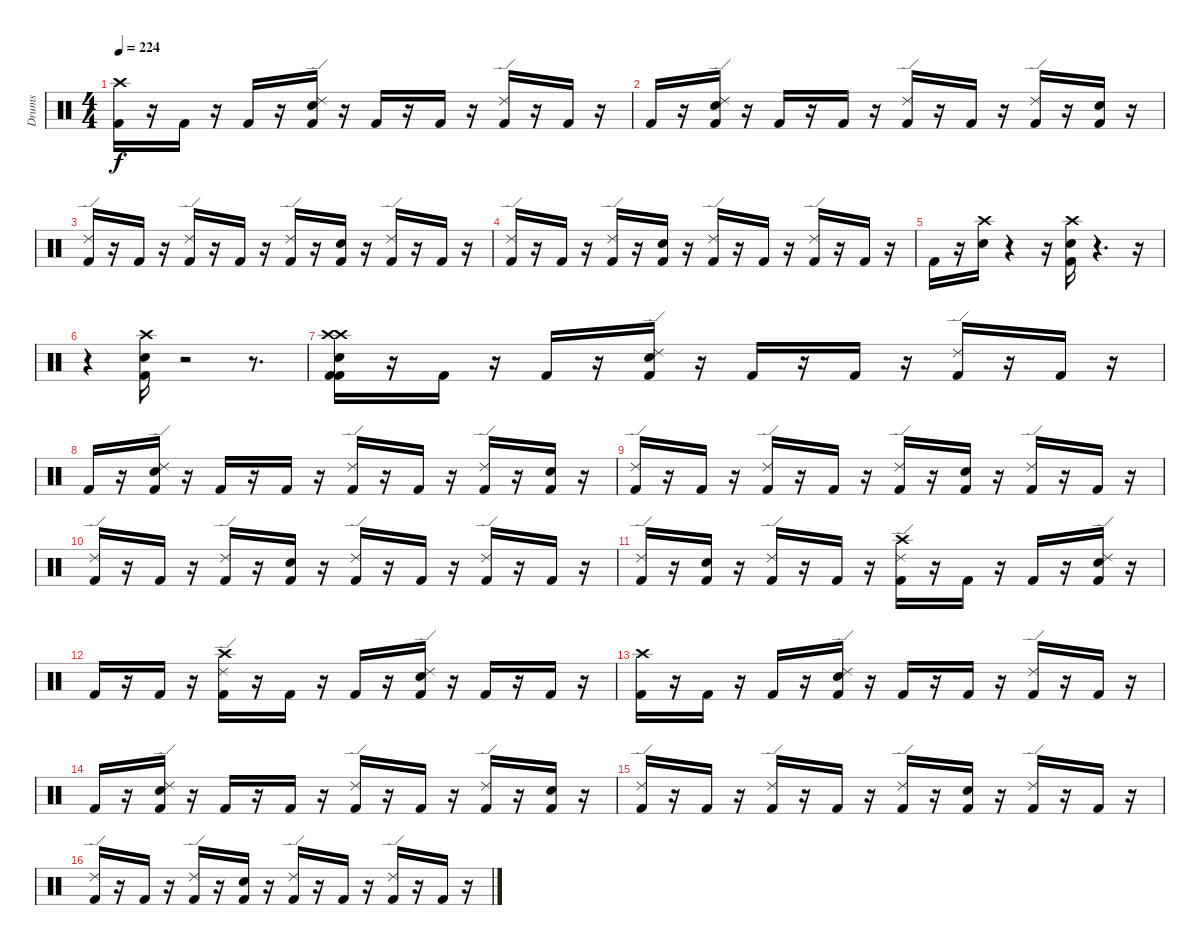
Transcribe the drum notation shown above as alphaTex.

\track ("Drums" "Drums") {instrument percussion}
\staff {score}
\articulation defaults
\ts (4 4)
\tempo 224
\clef neutral
\ks c
("Crash high (hit)" "Kick (hit) 2").16{dy f} r.16 "Kick (hit) 2".16 r.16 "Kick (hit) 2".16 r.16 ("Snare (hit) 2" "Ride (edge) 2" "Kick (hit) 2").16 r.16 "Kick (hit) 2".16 r.16 "Kick (hit) 2".16 r.16 ("Ride (edge) 2" "Kick (hit) 2").16 r.16 "Kick (hit) 2".16 r.16 |
"Kick (hit) 2".16 r.16 ("Ride (edge) 2" "Kick (hit) 2" "Snare (hit) 2").16 r.16 "Kick (hit) 2".16 r.16 "Kick (hit) 2".16 r.16 ("Ride (edge) 2" "Kick (hit) 2").16 r.16 "Kick (hit) 2".16 r.16 ("Ride (edge) 2" "Kick (hit) 2").16 r.16 ("Snare (hit) 2" "Kick (hit) 2").16 r.16 |
("Ride (edge) 2" "Kick (hit) 2").16 r.16 "Kick (hit) 2".16 r.16 ("Ride (edge) 2" "Kick (hit) 2").16 r.16 "Kick (hit) 2".16 r.16 ("Ride (edge) 2" "Kick (hit) 2").16 r.16 ("Kick (hit) 2" "Snare (hit) 2").16 r.16 ("Ride (edge) 2" "Kick (hit) 2").16 r.16 "Kick (hit) 2".16 r.16 |
("Ride (edge) 2" "Kick (hit) 2").16 r.16 "Kick (hit) 2".16 r.16 ("Ride (edge) 2" "Kick (hit) 2").16 r.16 ("Snare (hit) 2" "Kick (hit) 2").16 r.16 ("Ride (edge) 2" "Kick (hit) 2").16 r.16 "Kick (hit) 2".16 r.16 ("Ride (edge) 2" "Kick (hit) 2").16 r.16 "Kick (hit) 2".16 r.16 |
"Kick (hit) 2".16 r.16 ("Snare (hit) 2" "Crash high (hit)").16 r.4 r.16 ("Kick (hit) 2" "Snare (hit) 2" "Crash high (hit)").16 r.4{d} r.16 |
r.4 ("Kick (hit) 2" "Snare (hit) 2" "Crash high (hit)").16 r.2 r.8{d} |
("Crash high (hit)" "Snare (hit) 2" "Kick (hit) 2" "Crash high (hit)" "Kick (hit) 2").16 r.16 "Kick (hit) 2".16 r.16 "Kick (hit) 2".16 r.16 ("Snare (hit) 2" "Ride (edge) 2" "Kick (hit) 2").16 r.16 "Kick (hit) 2".16 r.16 "Kick (hit) 2".16 r.16 ("Ride (edge) 2" "Kick (hit) 2").16 r.16 "Kick (hit) 2".16 r.16 |
"Kick (hit) 2".16 r.16 ("Ride (edge) 2" "Kick (hit) 2" "Snare (hit) 2").16 r.16 "Kick (hit) 2".16 r.16 "Kick (hit) 2".16 r.16 ("Ride (edge) 2" "Kick (hit) 2").16 r.16 "Kick (hit) 2".16 r.16 ("Ride (edge) 2" "Kick (hit) 2").16 r.16 ("Snare (hit) 2" "Kick (hit) 2").16 r.16 |
("Ride (edge) 2" "Kick (hit) 2").16 r.16 "Kick (hit) 2".16 r.16 ("Ride (edge) 2" "Kick (hit) 2").16 r.16 "Kick (hit) 2".16 r.16 ("Ride (edge) 2" "Kick (hit) 2").16 r.16 ("Kick (hit) 2" "Snare (hit) 2").16 r.16 ("Ride (edge) 2" "Kick (hit) 2").16 r.16 "Kick (hit) 2".16 r.16 |
("Ride (edge) 2" "Kick (hit) 2").16 r.16 "Kick (hit) 2".16 r.16 ("Ride (edge) 2" "Kick (hit) 2").16 r.16 ("Snare (hit) 2" "Kick (hit) 2").16 r.16 ("Ride (edge) 2" "Kick (hit) 2").16 r.16 "Kick (hit) 2".16 r.16 ("Ride (edge) 2" "Kick (hit) 2").16 r.16 "Kick (hit) 2".16 r.16 |
("Ride (edge) 2" "Kick (hit) 2").16 r.16 ("Kick (hit) 2" "Snare (hit) 2").16 r.16 ("Ride (edge) 2" "Kick (hit) 2").16 r.16 "Kick (hit) 2".16 r.16 ("Ride (edge) 2" "Crash high (hit)" "Kick (hit) 2").16 r.16 "Kick (hit) 2".16 r.16 "Kick (hit) 2".16 r.16 ("Ride (edge) 2" "Snare (hit) 2" "Kick (hit) 2").16 r.16 |
"Kick (hit) 2".16 r.16 "Kick (hit) 2".16 r.16 ("Ride (edge) 2" "Crash high (hit)" "Kick (hit) 2").16 r.16 "Kick (hit) 2".16 r.16 "Kick (hit) 2".16 r.16 ("Ride (edge) 2" "Snare (hit) 2" "Kick (hit) 2").16 r.16 "Kick (hit) 2".16 r.16 "Kick (hit) 2".16 r.16 |
("Crash high (hit)" "Kick (hit) 2").16 r.16 "Kick (hit) 2".16 r.16 "Kick (hit) 2".16 r.16 ("Snare (hit) 2" "Ride (edge) 2" "Kick (hit) 2").16 r.16 "Kick (hit) 2".16 r.16 "Kick (hit) 2".16 r.16 ("Ride (edge) 2" "Kick (hit) 2").16 r.16 "Kick (hit) 2".16 r.16 |
"Kick (hit) 2".16 r.16 ("Ride (edge) 2" "Kick (hit) 2" "Snare (hit) 2").16 r.16 "Kick (hit) 2".16 r.16 "Kick (hit) 2".16 r.16 ("Ride (edge) 2" "Kick (hit) 2").16 r.16 "Kick (hit) 2".16 r.16 ("Ride (edge) 2" "Kick (hit) 2").16 r.16 ("Snare (hit) 2" "Kick (hit) 2").16 r.16 |
("Ride (edge) 2" "Kick (hit) 2").16 r.16 "Kick (hit) 2".16 r.16 ("Ride (edge) 2" "Kick (hit) 2").16 r.16 "Kick (hit) 2".16 r.16 ("Ride (edge) 2" "Kick (hit) 2").16 r.16 ("Kick (hit) 2" "Snare (hit) 2").16 r.16 ("Ride (edge) 2" "Kick (hit) 2").16 r.16 "Kick (hit) 2".16 r.16 |
("Ride (edge) 2" "Kick (hit) 2").16 r.16 "Kick (hit) 2".16 r.16 ("Ride (edge) 2" "Kick (hit) 2").16 r.16 ("Snare (hit) 2" "Kick (hit) 2").16 r.16 ("Ride (edge) 2" "Kick (hit) 2").16 r.16 "Kick (hit) 2".16 r.16 ("Ride (edge) 2" "Kick (hit) 2").16 r.16 "Kick (hit) 2".16 r.16
